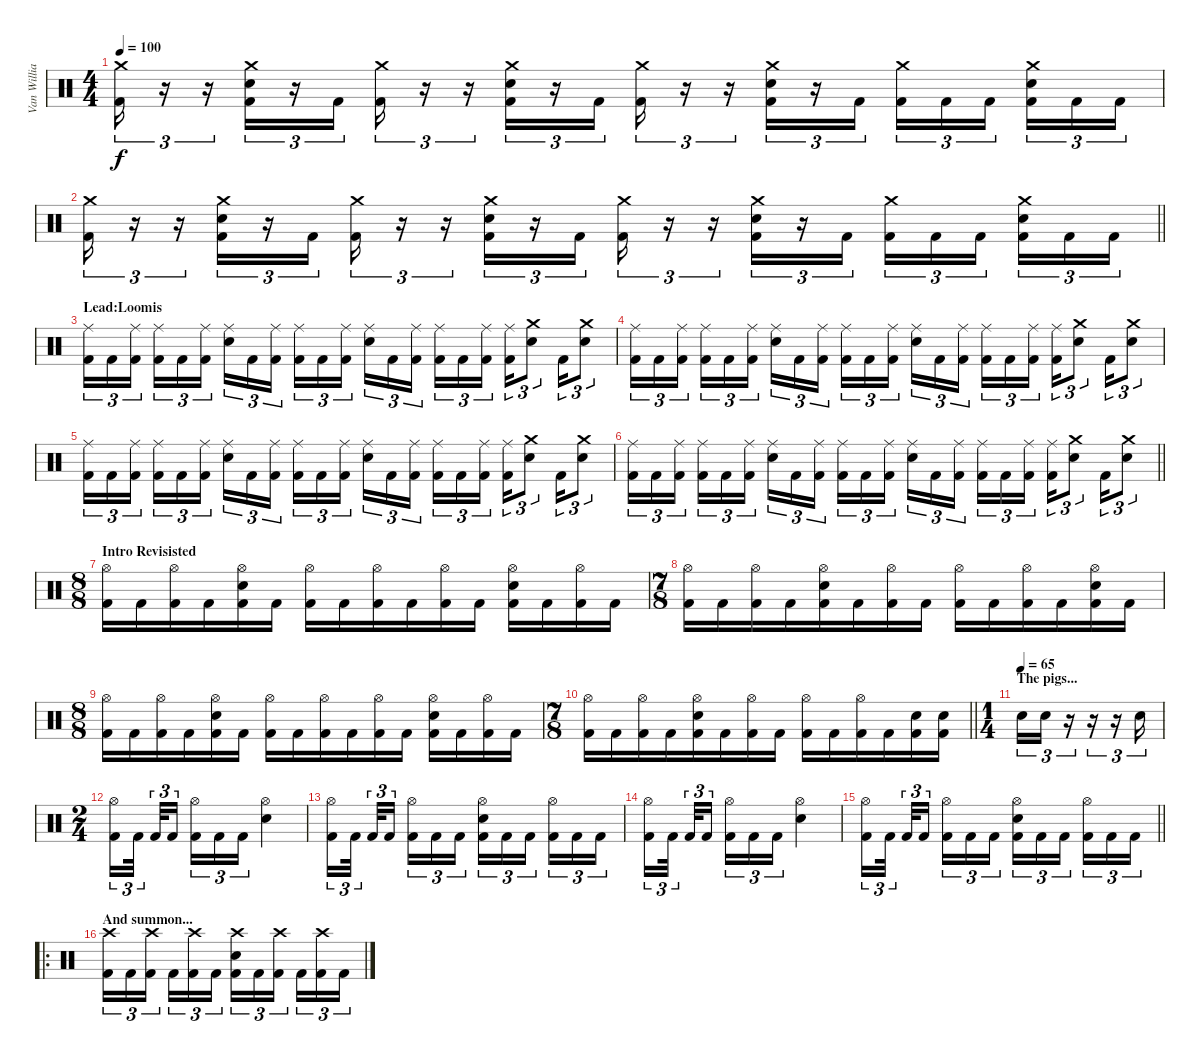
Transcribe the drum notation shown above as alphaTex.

\track ("Van Williams" "Van Willia") {instrument percussion}
\staff
\articulation defaults
\ts (4 4)
\tempo 100
\clef neutral
\ks c
("Crash medium (hit)" "Kick (hit) 2").16{tu (3 2) dy f} r.16{tu (3 2)} r.16{tu (3 2)} ("Crash medium (hit)" "Electric Snare (hit)" "Kick (hit) 2").16{tu (3 2)} r.16{tu (3 2)} "Kick (hit) 2".16{tu (3 2)} ("Crash medium (hit)" "Kick (hit) 2").16{tu (3 2)} r.16{tu (3 2)} r.16{tu (3 2)} ("Crash medium (hit)" "Electric Snare (hit)" "Kick (hit) 2").16{tu (3 2)} r.16{tu (3 2)} "Kick (hit) 2".16{tu (3 2)} ("Crash medium (hit)" "Kick (hit) 2").16{tu (3 2)} r.16{tu (3 2)} r.16{tu (3 2)} ("Crash medium (hit)" "Electric Snare (hit)" "Kick (hit) 2").16{tu (3 2)} r.16{tu (3 2)} "Kick (hit) 2".16{tu (3 2)} ("Crash medium (hit)" "Kick (hit) 2").16{tu (3 2)} "Kick (hit) 2".16{tu (3 2)} "Kick (hit) 2".16{tu (3 2) beam splitsecondary} ("Crash medium (hit)" "Electric Snare (hit)" "Kick (hit) 2").16{tu (3 2)} "Kick (hit) 2".16{tu (3 2)} "Kick (hit) 2".16{tu (3 2)} |
\barLineRight lightlight
("Crash medium (hit)" "Kick (hit) 2").16{tu (3 2)} r.16{tu (3 2)} r.16{tu (3 2)} ("Crash medium (hit)" "Electric Snare (hit)" "Kick (hit) 2").16{tu (3 2)} r.16{tu (3 2)} "Kick (hit) 2".16{tu (3 2)} ("Crash medium (hit)" "Kick (hit) 2").16{tu (3 2)} r.16{tu (3 2)} r.16{tu (3 2)} ("Crash medium (hit)" "Electric Snare (hit)" "Kick (hit) 2").16{tu (3 2)} r.16{tu (3 2)} "Kick (hit) 2".16{tu (3 2)} ("Crash medium (hit)" "Kick (hit) 2").16{tu (3 2)} r.16{tu (3 2)} r.16{tu (3 2)} ("Crash medium (hit)" "Electric Snare (hit)" "Kick (hit) 2").16{tu (3 2)} r.16{tu (3 2)} "Kick (hit) 2".16{tu (3 2)} ("Crash medium (hit)" "Kick (hit) 2").16{tu (3 2)} "Kick (hit) 2".16{tu (3 2)} "Kick (hit) 2".16{tu (3 2) beam splitsecondary} ("Crash medium (hit)" "Electric Snare (hit)" "Kick (hit) 2").16{tu (3 2)} "Kick (hit) 2".16{tu (3 2)} "Kick (hit) 2".16{tu (3 2)} |
\section ("" "Lead:Loomis")
("Ride (middle)" "Kick (hit) 2").16{tu (3 2)} "Kick (hit) 2".16{tu (3 2)} ("Ride (middle)" "Kick (hit) 2").16{tu (3 2) beam splitsecondary} ("Ride (middle)" "Kick (hit) 2").16{tu (3 2)} "Kick (hit) 2".16{tu (3 2)} ("Ride (middle)" "Kick (hit) 2").16{tu (3 2)} ("Ride (middle)" "Electric Snare (hit)").16{tu (3 2)} "Kick (hit) 2".16{tu (3 2)} ("Ride (middle)" "Kick (hit) 2").16{tu (3 2) beam splitsecondary} ("Ride (middle)" "Kick (hit) 2").16{tu (3 2)} "Kick (hit) 2".16{tu (3 2)} ("Ride (middle)" "Kick (hit) 2").16{tu (3 2)} ("Ride (middle)" "Electric Snare (hit)").16{tu (3 2)} "Kick (hit) 2".16{tu (3 2)} ("Ride (middle)" "Kick (hit) 2").16{tu (3 2) beam splitsecondary} ("Ride (middle)" "Kick (hit) 2").16{tu (3 2)} "Kick (hit) 2".16{tu (3 2)} ("Ride (middle)" "Kick (hit) 2").16{tu (3 2)} ("Ride (middle)" "Kick (hit) 2").16{tu (3 2)} ("Crash medium (hit)" "Electric Snare (hit)").8{tu (3 2)} "Kick (hit) 2".16{tu (3 2)} ("Crash medium (hit)" "Electric Snare (hit)").8{tu (3 2)} |
("Ride (middle)" "Kick (hit) 2").16{tu (3 2)} "Kick (hit) 2".16{tu (3 2)} ("Ride (middle)" "Kick (hit) 2").16{tu (3 2) beam splitsecondary} ("Ride (middle)" "Kick (hit) 2").16{tu (3 2)} "Kick (hit) 2".16{tu (3 2)} ("Ride (middle)" "Kick (hit) 2").16{tu (3 2)} ("Ride (middle)" "Electric Snare (hit)").16{tu (3 2)} "Kick (hit) 2".16{tu (3 2)} ("Ride (middle)" "Kick (hit) 2").16{tu (3 2) beam splitsecondary} ("Ride (middle)" "Kick (hit) 2").16{tu (3 2)} "Kick (hit) 2".16{tu (3 2)} ("Ride (middle)" "Kick (hit) 2").16{tu (3 2)} ("Ride (middle)" "Electric Snare (hit)").16{tu (3 2)} "Kick (hit) 2".16{tu (3 2)} ("Ride (middle)" "Kick (hit) 2").16{tu (3 2) beam splitsecondary} ("Ride (middle)" "Kick (hit) 2").16{tu (3 2)} "Kick (hit) 2".16{tu (3 2)} ("Ride (middle)" "Kick (hit) 2").16{tu (3 2)} ("Ride (middle)" "Kick (hit) 2").16{tu (3 2)} ("Crash medium (hit)" "Electric Snare (hit)").8{tu (3 2)} "Kick (hit) 2".16{tu (3 2)} ("Crash medium (hit)" "Electric Snare (hit)").8{tu (3 2)} |
("Ride (middle)" "Kick (hit) 2").16{tu (3 2)} "Kick (hit) 2".16{tu (3 2)} ("Ride (middle)" "Kick (hit) 2").16{tu (3 2) beam splitsecondary} ("Ride (middle)" "Kick (hit) 2").16{tu (3 2)} "Kick (hit) 2".16{tu (3 2)} ("Ride (middle)" "Kick (hit) 2").16{tu (3 2)} ("Ride (middle)" "Electric Snare (hit)").16{tu (3 2)} "Kick (hit) 2".16{tu (3 2)} ("Ride (middle)" "Kick (hit) 2").16{tu (3 2) beam splitsecondary} ("Ride (middle)" "Kick (hit) 2").16{tu (3 2)} "Kick (hit) 2".16{tu (3 2)} ("Ride (middle)" "Kick (hit) 2").16{tu (3 2)} ("Ride (middle)" "Electric Snare (hit)").16{tu (3 2)} "Kick (hit) 2".16{tu (3 2)} ("Ride (middle)" "Kick (hit) 2").16{tu (3 2) beam splitsecondary} ("Ride (middle)" "Kick (hit) 2").16{tu (3 2)} "Kick (hit) 2".16{tu (3 2)} ("Ride (middle)" "Kick (hit) 2").16{tu (3 2)} ("Ride (middle)" "Kick (hit) 2").16{tu (3 2)} ("Crash medium (hit)" "Electric Snare (hit)").8{tu (3 2)} "Kick (hit) 2".16{tu (3 2)} ("Crash medium (hit)" "Electric Snare (hit)").8{tu (3 2)} |
\barLineRight lightlight
("Ride (middle)" "Kick (hit) 2").16{tu (3 2)} "Kick (hit) 2".16{tu (3 2)} ("Ride (middle)" "Kick (hit) 2").16{tu (3 2) beam splitsecondary} ("Ride (middle)" "Kick (hit) 2").16{tu (3 2)} "Kick (hit) 2".16{tu (3 2)} ("Ride (middle)" "Kick (hit) 2").16{tu (3 2)} ("Ride (middle)" "Electric Snare (hit)").16{tu (3 2)} "Kick (hit) 2".16{tu (3 2)} ("Ride (middle)" "Kick (hit) 2").16{tu (3 2) beam splitsecondary} ("Ride (middle)" "Kick (hit) 2").16{tu (3 2)} "Kick (hit) 2".16{tu (3 2)} ("Ride (middle)" "Kick (hit) 2").16{tu (3 2)} ("Ride (middle)" "Electric Snare (hit)").16{tu (3 2)} "Kick (hit) 2".16{tu (3 2)} ("Ride (middle)" "Kick (hit) 2").16{tu (3 2) beam splitsecondary} ("Ride (middle)" "Kick (hit) 2").16{tu (3 2)} "Kick (hit) 2".16{tu (3 2)} ("Ride (middle)" "Kick (hit) 2").16{tu (3 2)} ("Ride (middle)" "Kick (hit) 2").16{tu (3 2)} ("Crash medium (hit)" "Electric Snare (hit)").8{tu (3 2)} "Kick (hit) 2".16{tu (3 2)} ("Crash medium (hit)" "Electric Snare (hit)").8{tu (3 2)} |
\ts (8 8)
\section ("" "Intro Revisisted")
("Hi-Hat (open)" "Kick (hit) 2").16 "Kick (hit) 2".16 ("Hi-Hat (open)" "Kick (hit) 2").16 "Kick (hit) 2".16 ("Hi-Hat (open)" "Electric Snare (hit)" "Kick (hit) 2").16 "Kick (hit) 2".16 ("Hi-Hat (open)" "Kick (hit) 2").16 "Kick (hit) 2".16 ("Hi-Hat (open)" "Kick (hit) 2").16 "Kick (hit) 2".16 ("Hi-Hat (open)" "Kick (hit) 2").16 "Kick (hit) 2".16 ("Hi-Hat (open)" "Electric Snare (hit)" "Kick (hit) 2").16 "Kick (hit) 2".16 ("Hi-Hat (open)" "Kick (hit) 2").16 "Kick (hit) 2".16 |
\ts (7 8)
("Hi-Hat (open)" "Kick (hit) 2").16 "Kick (hit) 2".16 ("Hi-Hat (open)" "Kick (hit) 2").16 "Kick (hit) 2".16 ("Hi-Hat (open)" "Electric Snare (hit)" "Kick (hit) 2").16 "Kick (hit) 2".16 ("Hi-Hat (open)" "Kick (hit) 2").16 "Kick (hit) 2".16 ("Hi-Hat (open)" "Kick (hit) 2").16 "Kick (hit) 2".16 ("Hi-Hat (open)" "Kick (hit) 2").16 "Kick (hit) 2".16 ("Hi-Hat (open)" "Electric Snare (hit)" "Kick (hit) 2").16 "Kick (hit) 2".16 |
\ts (8 8)
("Hi-Hat (open)" "Kick (hit) 2").16 "Kick (hit) 2".16 ("Hi-Hat (open)" "Kick (hit) 2").16 "Kick (hit) 2".16 ("Hi-Hat (open)" "Electric Snare (hit)" "Kick (hit) 2").16 "Kick (hit) 2".16 ("Hi-Hat (open)" "Kick (hit) 2").16 "Kick (hit) 2".16 ("Hi-Hat (open)" "Kick (hit) 2").16 "Kick (hit) 2".16 ("Hi-Hat (open)" "Kick (hit) 2").16 "Kick (hit) 2".16 ("Hi-Hat (open)" "Electric Snare (hit)" "Kick (hit) 2").16 "Kick (hit) 2".16 ("Hi-Hat (open)" "Kick (hit) 2").16 "Kick (hit) 2".16 |
\ts (7 8)
\barLineRight lightlight
("Hi-Hat (open)" "Kick (hit) 2").16 "Kick (hit) 2".16 ("Hi-Hat (open)" "Kick (hit) 2").16 "Kick (hit) 2".16 ("Hi-Hat (open)" "Electric Snare (hit)" "Kick (hit) 2").16 "Kick (hit) 2".16 ("Hi-Hat (open)" "Kick (hit) 2").16 "Kick (hit) 2".16 ("Hi-Hat (open)" "Kick (hit) 2").16 "Kick (hit) 2".16 ("Hi-Hat (open)" "Kick (hit) 2").16 "Kick (hit) 2".16 ("Electric Snare (hit)" "Kick (hit) 2").16 ("Electric Snare (hit)" "Kick (hit) 2").16 |
\ts (1 4)
\section ("" "The pigs...")
\tempo (65)
"Electric Snare (hit)".16{tu (3 2)} "Electric Snare (hit)".16{tu (3 2)} r.16{tu (3 2)} r.16{tu (3 2)} r.16{tu (3 2)} "Electric Snare (hit)".16{tu (3 2)} |
\ts (2 4)
("Hi-Hat (open)" "Kick (hit) 2").16{tu (3 2)} "Kick (hit) 2".32{tu (3 2) beam splitsecondary} "Kick (hit) 2".32{tu (3 2)} "Kick (hit) 2".16{tu (3 2) beam splitsecondary} ("Hi-Hat (open)" "Kick (hit) 2").16{tu (3 2)} "Kick (hit) 2".16{tu (3 2)} "Kick (hit) 2".16{tu (3 2)} ("Hi-Hat (open)" "Electric Snare (hit)").4 |
("Hi-Hat (open)" "Kick (hit) 2").16{tu (3 2)} "Kick (hit) 2".32{tu (3 2) beam splitsecondary} "Kick (hit) 2".32{tu (3 2)} "Kick (hit) 2".16{tu (3 2) beam splitsecondary} ("Hi-Hat (open)" "Kick (hit) 2").16{tu (3 2)} "Kick (hit) 2".16{tu (3 2)} "Kick (hit) 2".16{tu (3 2)} ("Hi-Hat (open)" "Electric Snare (hit)" "Kick (hit) 2").16{tu (3 2)} "Kick (hit) 2".16{tu (3 2)} "Kick (hit) 2".16{tu (3 2) beam splitsecondary} ("Hi-Hat (open)" "Kick (hit) 2").16{tu (3 2)} "Kick (hit) 2".16{tu (3 2)} "Kick (hit) 2".16{tu (3 2)} |
("Hi-Hat (open)" "Kick (hit) 2").16{tu (3 2)} "Kick (hit) 2".32{tu (3 2) beam splitsecondary} "Kick (hit) 2".32{tu (3 2)} "Kick (hit) 2".16{tu (3 2) beam splitsecondary} ("Hi-Hat (open)" "Kick (hit) 2").16{tu (3 2)} "Kick (hit) 2".16{tu (3 2)} "Kick (hit) 2".16{tu (3 2)} ("Hi-Hat (open)" "Electric Snare (hit)").4 |
\barLineRight lightlight
("Hi-Hat (open)" "Kick (hit) 2").16{tu (3 2)} "Kick (hit) 2".32{tu (3 2) beam splitsecondary} "Kick (hit) 2".32{tu (3 2)} "Kick (hit) 2".16{tu (3 2) beam splitsecondary} ("Hi-Hat (open)" "Kick (hit) 2").16{tu (3 2)} "Kick (hit) 2".16{tu (3 2)} "Kick (hit) 2".16{tu (3 2)} ("Hi-Hat (open)" "Electric Snare (hit)" "Kick (hit) 2").16{tu (3 2)} "Kick (hit) 2".16{tu (3 2)} "Kick (hit) 2".16{tu (3 2) beam splitsecondary} ("Hi-Hat (open)" "Kick (hit) 2").16{tu (3 2)} "Kick (hit) 2".16{tu (3 2)} "Kick (hit) 2".16{tu (3 2)} |
\ro
\section ("" "And summon...")
("Crash high (hit)" "Kick (hit) 2").16{tu (3 2)} "Kick (hit) 2".16{tu (3 2)} ("Crash high (hit)" "Kick (hit) 2").16{tu (3 2) beam splitsecondary} "Kick (hit) 2".16{tu (3 2)} ("Crash high (hit)" "Kick (hit) 2").16{tu (3 2)} "Kick (hit) 2".16{tu (3 2)} ("Crash high (hit)" "Electric Snare (hit)" "Kick (hit) 2").16{tu (3 2)} "Kick (hit) 2".16{tu (3 2)} ("Crash high (hit)" "Kick (hit) 2").16{tu (3 2) beam splitsecondary} "Kick (hit) 2".16{tu (3 2)} ("Crash high (hit)" "Kick (hit) 2").16{tu (3 2)} "Kick (hit) 2".16{tu (3 2)}
